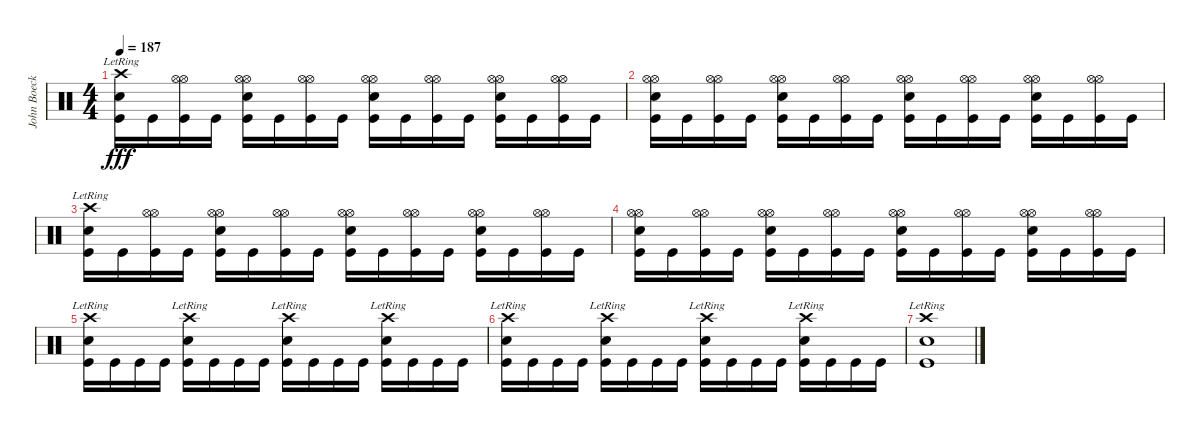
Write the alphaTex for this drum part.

\track ("John Boecklin - Drums" "John Boeck") {instrument percussion}
\staff {score}
\articulation defaults
\ts (4 4)
\tempo 187
\clef neutral
\ks c
("Crash high (hit)"{lr} "Snare (hit) 2" "Kick (hit)").16{dy fff} "Kick (hit)".16 ("Hi-Hat (open)" "Hi-Hat (open)" "Kick (hit)").16 "Kick (hit)".16 ("Snare (hit) 2" "Hi-Hat (open)" "Hi-Hat (open)" "Kick (hit)").16 "Kick (hit)".16 ("Hi-Hat (open)" "Hi-Hat (open)" "Kick (hit)").16 "Kick (hit)".16 ("Snare (hit) 2" "Hi-Hat (open)" "Hi-Hat (open)" "Kick (hit)").16 "Kick (hit)".16 ("Hi-Hat (open)" "Hi-Hat (open)" "Kick (hit)").16 "Kick (hit)".16 ("Snare (hit) 2" "Hi-Hat (open)" "Hi-Hat (open)" "Kick (hit)").16 "Kick (hit)".16 ("Hi-Hat (open)" "Hi-Hat (open)" "Kick (hit)").16 "Kick (hit)".16 |
("Snare (hit) 2" "Hi-Hat (open)" "Hi-Hat (open)" "Kick (hit)").16 "Kick (hit)".16 ("Hi-Hat (open)" "Hi-Hat (open)" "Kick (hit)").16 "Kick (hit)".16 ("Snare (hit) 2" "Hi-Hat (open)" "Hi-Hat (open)" "Kick (hit)").16 "Kick (hit)".16 ("Hi-Hat (open)" "Hi-Hat (open)" "Kick (hit)").16 "Kick (hit)".16 ("Snare (hit) 2" "Hi-Hat (open)" "Hi-Hat (open)" "Kick (hit)").16 "Kick (hit)".16 ("Hi-Hat (open)" "Hi-Hat (open)" "Kick (hit)").16 "Kick (hit)".16 ("Snare (hit) 2" "Hi-Hat (open)" "Hi-Hat (open)" "Kick (hit)").16 "Kick (hit)".16 ("Hi-Hat (open)" "Hi-Hat (open)" "Kick (hit)").16 "Kick (hit)".16 |
("Crash high (hit)"{lr} "Snare (hit) 2" "Kick (hit)").16 "Kick (hit)".16 ("Hi-Hat (open)" "Hi-Hat (open)" "Kick (hit)").16 "Kick (hit)".16 ("Snare (hit) 2" "Hi-Hat (open)" "Hi-Hat (open)" "Kick (hit)").16 "Kick (hit)".16 ("Hi-Hat (open)" "Hi-Hat (open)" "Kick (hit)").16 "Kick (hit)".16 ("Snare (hit) 2" "Hi-Hat (open)" "Hi-Hat (open)" "Kick (hit)").16 "Kick (hit)".16 ("Hi-Hat (open)" "Hi-Hat (open)" "Kick (hit)").16 "Kick (hit)".16 ("Snare (hit) 2" "Hi-Hat (open)" "Hi-Hat (open)" "Kick (hit)").16 "Kick (hit)".16 ("Hi-Hat (open)" "Hi-Hat (open)" "Kick (hit)").16 "Kick (hit)".16 |
("Snare (hit) 2" "Hi-Hat (open)" "Hi-Hat (open)" "Kick (hit)").16 "Kick (hit)".16 ("Hi-Hat (open)" "Hi-Hat (open)" "Kick (hit)").16 "Kick (hit)".16 ("Snare (hit) 2" "Hi-Hat (open)" "Hi-Hat (open)" "Kick (hit)").16 "Kick (hit)".16 ("Hi-Hat (open)" "Hi-Hat (open)" "Kick (hit)").16 "Kick (hit)".16 ("Snare (hit) 2" "Hi-Hat (open)" "Hi-Hat (open)" "Kick (hit)").16 "Kick (hit)".16 ("Hi-Hat (open)" "Hi-Hat (open)" "Kick (hit)").16 "Kick (hit)".16 ("Snare (hit) 2" "Hi-Hat (open)" "Hi-Hat (open)" "Kick (hit)").16 "Kick (hit)".16 ("Hi-Hat (open)" "Hi-Hat (open)" "Kick (hit)").16 "Kick (hit)".16 |
("Crash high (hit)"{lr} "Snare (hit) 2" "Kick (hit)").16 "Kick (hit)".16 "Kick (hit)".16 "Kick (hit)".16 ("Crash high (hit)"{lr} "Snare (hit) 2" "Kick (hit)").16 "Kick (hit)".16 "Kick (hit)".16 "Kick (hit)".16 ("Crash high (hit)"{lr} "Snare (hit) 2" "Kick (hit)").16 "Kick (hit)".16 "Kick (hit)".16 "Kick (hit)".16 ("Crash high (hit)"{lr} "Snare (hit) 2" "Kick (hit)").16 "Kick (hit)".16 "Kick (hit)".16 "Kick (hit)".16 |
("Crash high (hit)"{lr} "Snare (hit) 2" "Kick (hit)").16 "Kick (hit)".16 "Kick (hit)".16 "Kick (hit)".16 ("Crash high (hit)"{lr} "Snare (hit) 2" "Kick (hit)").16 "Kick (hit)".16 "Kick (hit)".16 "Kick (hit)".16 ("Crash high (hit)"{lr} "Snare (hit) 2" "Kick (hit)").16 "Kick (hit)".16 "Kick (hit)".16 "Kick (hit)".16 ("Crash high (hit)"{lr} "Snare (hit) 2" "Kick (hit)").16 "Kick (hit)".16 "Kick (hit)".16 "Kick (hit)".16 |
("Crash high (hit)"{lr} "Snare (hit) 2" "Kick (hit)").1
